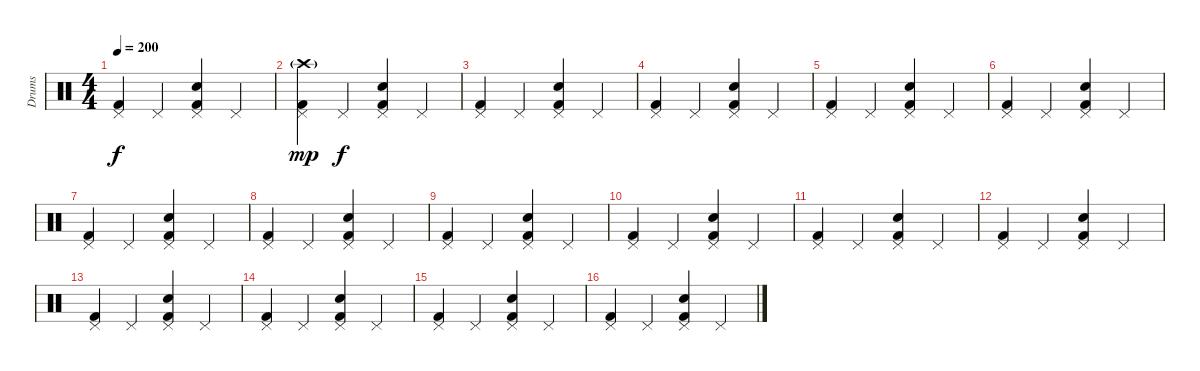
\track ("Drums" "Drums") {instrument percussion}
\staff {score}
\articulation defaults
\ts (4 4)
\tempo 200
\clef neutral
\ks c
("Pedal Hi-Hat (hit)" "Kick (hit) 2").4{dy f} "Pedal Hi-Hat (hit)".4 ("Pedal Hi-Hat (hit)" "Kick (hit) 2" "Snare (hit) 2").4 "Pedal Hi-Hat (hit)".4 |
("Pedal Hi-Hat (hit)" "Crash high (hit)"{g} "Kick (hit) 2").4{dy mp} "Pedal Hi-Hat (hit)".4{dy f} ("Pedal Hi-Hat (hit)" "Kick (hit) 2" "Snare (hit) 2").4 "Pedal Hi-Hat (hit)".4 |
("Pedal Hi-Hat (hit)" "Kick (hit) 2").4 "Pedal Hi-Hat (hit)".4 ("Pedal Hi-Hat (hit)" "Kick (hit) 2" "Snare (hit) 2").4 "Pedal Hi-Hat (hit)".4 |
("Pedal Hi-Hat (hit)" "Kick (hit) 2").4 "Pedal Hi-Hat (hit)".4 ("Pedal Hi-Hat (hit)" "Kick (hit) 2" "Snare (hit) 2").4 "Pedal Hi-Hat (hit)".4 |
("Pedal Hi-Hat (hit)" "Kick (hit) 2").4 "Pedal Hi-Hat (hit)".4 ("Pedal Hi-Hat (hit)" "Kick (hit) 2" "Snare (hit) 2").4 "Pedal Hi-Hat (hit)".4 |
("Pedal Hi-Hat (hit)" "Kick (hit) 2").4 "Pedal Hi-Hat (hit)".4 ("Pedal Hi-Hat (hit)" "Kick (hit) 2" "Snare (hit) 2").4 "Pedal Hi-Hat (hit)".4 |
("Pedal Hi-Hat (hit)" "Kick (hit) 2").4 "Pedal Hi-Hat (hit)".4 ("Pedal Hi-Hat (hit)" "Kick (hit) 2" "Snare (hit) 2").4 "Pedal Hi-Hat (hit)".4 |
("Pedal Hi-Hat (hit)" "Kick (hit) 2").4 "Pedal Hi-Hat (hit)".4 ("Pedal Hi-Hat (hit)" "Kick (hit) 2" "Snare (hit) 2").4 "Pedal Hi-Hat (hit)".4 |
("Pedal Hi-Hat (hit)" "Kick (hit) 2").4 "Pedal Hi-Hat (hit)".4 ("Pedal Hi-Hat (hit)" "Kick (hit) 2" "Snare (hit) 2").4 "Pedal Hi-Hat (hit)".4 |
("Pedal Hi-Hat (hit)" "Kick (hit) 2").4 "Pedal Hi-Hat (hit)".4 ("Pedal Hi-Hat (hit)" "Kick (hit) 2" "Snare (hit) 2").4 "Pedal Hi-Hat (hit)".4 |
("Pedal Hi-Hat (hit)" "Kick (hit) 2").4 "Pedal Hi-Hat (hit)".4 ("Pedal Hi-Hat (hit)" "Kick (hit) 2" "Snare (hit) 2").4 "Pedal Hi-Hat (hit)".4 |
("Pedal Hi-Hat (hit)" "Kick (hit) 2").4 "Pedal Hi-Hat (hit)".4 ("Pedal Hi-Hat (hit)" "Kick (hit) 2" "Snare (hit) 2").4 "Pedal Hi-Hat (hit)".4 |
("Pedal Hi-Hat (hit)" "Kick (hit) 2").4 "Pedal Hi-Hat (hit)".4 ("Pedal Hi-Hat (hit)" "Kick (hit) 2" "Snare (hit) 2").4 "Pedal Hi-Hat (hit)".4 |
("Pedal Hi-Hat (hit)" "Kick (hit) 2").4 "Pedal Hi-Hat (hit)".4 ("Pedal Hi-Hat (hit)" "Kick (hit) 2" "Snare (hit) 2").4 "Pedal Hi-Hat (hit)".4 |
("Pedal Hi-Hat (hit)" "Kick (hit) 2").4 "Pedal Hi-Hat (hit)".4 ("Pedal Hi-Hat (hit)" "Kick (hit) 2" "Snare (hit) 2").4 "Pedal Hi-Hat (hit)".4 |
("Pedal Hi-Hat (hit)" "Kick (hit) 2").4 "Pedal Hi-Hat (hit)".4 ("Pedal Hi-Hat (hit)" "Kick (hit) 2" "Snare (hit) 2").4 "Pedal Hi-Hat (hit)".4
